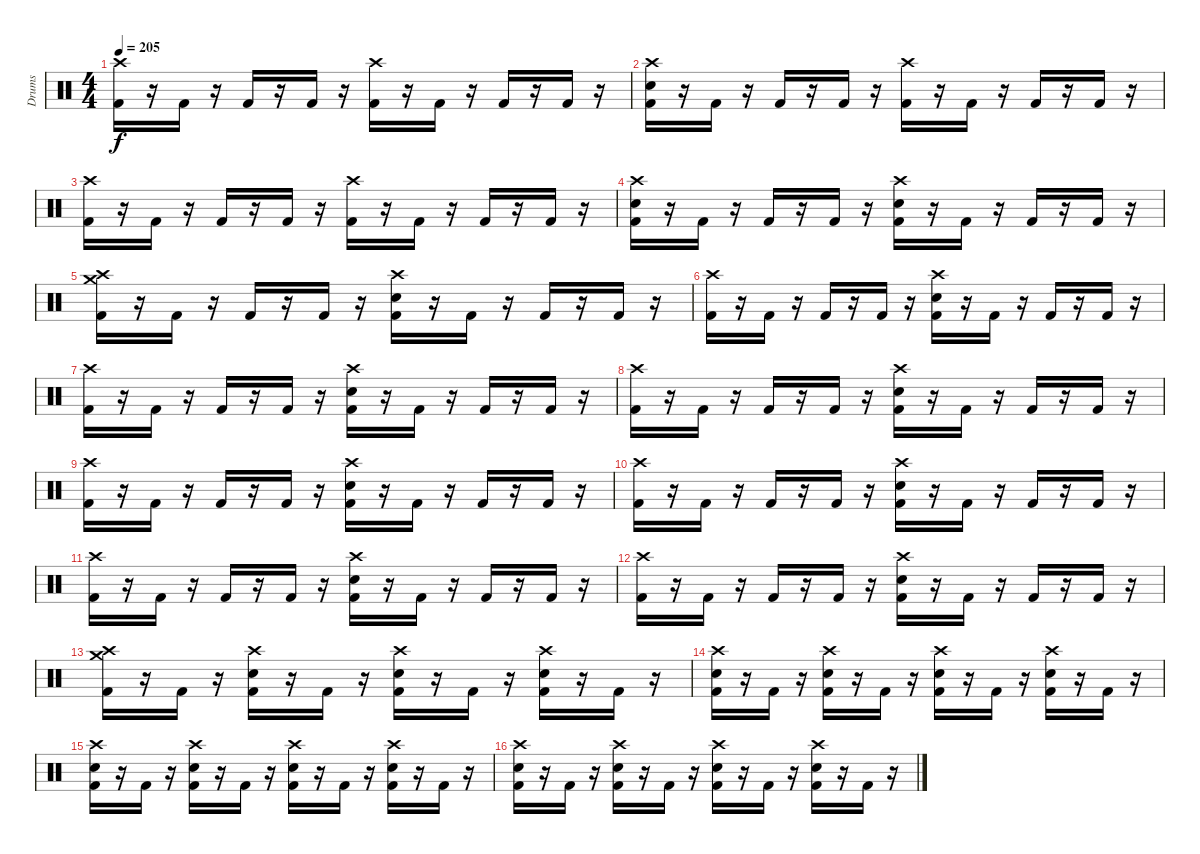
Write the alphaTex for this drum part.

\track ("Drums" "Drums") {instrument percussion}
\staff {score}
\articulation defaults
\ts (4 4)
\tempo 205
\clef neutral
\ks c
("Crash high (hit)" "Kick (hit) 2").16{dy f} r.16 "Kick (hit) 2".16 r.16 "Kick (hit) 2".16 r.16 "Kick (hit) 2".16 r.16 ("Crash high (hit)" "Kick (hit) 2").16 r.16 "Kick (hit) 2".16 r.16 "Kick (hit) 2".16 r.16 "Kick (hit) 2".16 r.16 |
("Crash high (hit)" "Electric Snare (hit)" "Kick (hit) 2").16 r.16 "Kick (hit) 2".16 r.16 "Kick (hit) 2".16 r.16 "Kick (hit) 2".16 r.16 ("Crash high (hit)" "Kick (hit) 2").16 r.16 "Kick (hit) 2".16 r.16 "Kick (hit) 2".16 r.16 "Kick (hit) 2".16 r.16 |
("Crash high (hit)" "Kick (hit) 2").16 r.16 "Kick (hit) 2".16 r.16 "Kick (hit) 2".16 r.16 "Kick (hit) 2".16 r.16 ("Crash high (hit)" "Kick (hit) 2").16 r.16 "Kick (hit) 2".16 r.16 "Kick (hit) 2".16 r.16 "Kick (hit) 2".16 r.16 |
("Crash high (hit)" "Electric Snare (hit)" "Kick (hit) 2").16 r.16 "Kick (hit) 2".16 r.16 "Kick (hit) 2".16 r.16 "Kick (hit) 2".16 r.16 ("Crash high (hit)" "Electric Snare (hit)" "Kick (hit) 2").16 r.16 "Kick (hit) 2".16 r.16 "Kick (hit) 2".16 r.16 "Kick (hit) 2".16 r.16 |
("Crash high (hit)" "Crash medium (hit)" "Kick (hit) 2").16 r.16 "Kick (hit) 2".16 r.16 "Kick (hit) 2".16 r.16 "Kick (hit) 2".16 r.16 ("Crash high (hit)" "Electric Snare (hit)" "Kick (hit) 2").16 r.16 "Kick (hit) 2".16 r.16 "Kick (hit) 2".16 r.16 "Kick (hit) 2".16 r.16 |
("Crash high (hit)" "Kick (hit) 2").16 r.16 "Kick (hit) 2".16 r.16 "Kick (hit) 2".16 r.16 "Kick (hit) 2".16 r.16 ("Crash high (hit)" "Electric Snare (hit)" "Kick (hit) 2").16 r.16 "Kick (hit) 2".16 r.16 "Kick (hit) 2".16 r.16 "Kick (hit) 2".16 r.16 |
("Crash high (hit)" "Kick (hit) 2").16 r.16 "Kick (hit) 2".16 r.16 "Kick (hit) 2".16 r.16 "Kick (hit) 2".16 r.16 ("Crash high (hit)" "Electric Snare (hit)" "Kick (hit) 2").16 r.16 "Kick (hit) 2".16 r.16 "Kick (hit) 2".16 r.16 "Kick (hit) 2".16 r.16 |
("Crash high (hit)" "Kick (hit) 2").16 r.16 "Kick (hit) 2".16 r.16 "Kick (hit) 2".16 r.16 "Kick (hit) 2".16 r.16 ("Crash high (hit)" "Electric Snare (hit)" "Kick (hit) 2").16 r.16 "Kick (hit) 2".16 r.16 "Kick (hit) 2".16 r.16 "Kick (hit) 2".16 r.16 |
("Crash high (hit)" "Kick (hit) 2").16 r.16 "Kick (hit) 2".16 r.16 "Kick (hit) 2".16 r.16 "Kick (hit) 2".16 r.16 ("Crash high (hit)" "Electric Snare (hit)" "Kick (hit) 2").16 r.16 "Kick (hit) 2".16 r.16 "Kick (hit) 2".16 r.16 "Kick (hit) 2".16 r.16 |
("Crash high (hit)" "Kick (hit) 2").16 r.16 "Kick (hit) 2".16 r.16 "Kick (hit) 2".16 r.16 "Kick (hit) 2".16 r.16 ("Crash high (hit)" "Electric Snare (hit)" "Kick (hit) 2").16 r.16 "Kick (hit) 2".16 r.16 "Kick (hit) 2".16 r.16 "Kick (hit) 2".16 r.16 |
("Crash high (hit)" "Kick (hit) 2").16 r.16 "Kick (hit) 2".16 r.16 "Kick (hit) 2".16 r.16 "Kick (hit) 2".16 r.16 ("Crash high (hit)" "Electric Snare (hit)" "Kick (hit) 2").16 r.16 "Kick (hit) 2".16 r.16 "Kick (hit) 2".16 r.16 "Kick (hit) 2".16 r.16 |
("Crash high (hit)" "Kick (hit) 2").16 r.16 "Kick (hit) 2".16 r.16 "Kick (hit) 2".16 r.16 "Kick (hit) 2".16 r.16 ("Crash high (hit)" "Electric Snare (hit)" "Kick (hit) 2").16 r.16 "Kick (hit) 2".16 r.16 "Kick (hit) 2".16 r.16 "Kick (hit) 2".16 r.16 |
("Crash high (hit)" "Crash medium (hit)" "Kick (hit) 2").16 r.16 "Kick (hit) 2".16 r.16 ("Crash high (hit)" "Electric Snare (hit)" "Kick (hit) 2").16 r.16 "Kick (hit) 2".16 r.16 ("Crash high (hit)" "Electric Snare (hit)" "Kick (hit) 2").16 r.16 "Kick (hit) 2".16 r.16 ("Crash high (hit)" "Electric Snare (hit)" "Kick (hit) 2").16 r.16 "Kick (hit) 2".16 r.16 |
("Crash high (hit)" "Electric Snare (hit)" "Kick (hit) 2").16 r.16 "Kick (hit) 2".16 r.16 ("Crash high (hit)" "Electric Snare (hit)" "Kick (hit) 2").16 r.16 "Kick (hit) 2".16 r.16 ("Crash high (hit)" "Electric Snare (hit)" "Kick (hit) 2").16 r.16 "Kick (hit) 2".16 r.16 ("Crash high (hit)" "Electric Snare (hit)" "Kick (hit) 2").16 r.16 "Kick (hit) 2".16 r.16 |
("Crash high (hit)" "Electric Snare (hit)" "Kick (hit) 2").16 r.16 "Kick (hit) 2".16 r.16 ("Crash high (hit)" "Electric Snare (hit)" "Kick (hit) 2").16 r.16 "Kick (hit) 2".16 r.16 ("Crash high (hit)" "Electric Snare (hit)" "Kick (hit) 2").16 r.16 "Kick (hit) 2".16 r.16 ("Crash high (hit)" "Electric Snare (hit)" "Kick (hit) 2").16 r.16 "Kick (hit) 2".16 r.16 |
("Crash high (hit)" "Electric Snare (hit)" "Kick (hit) 2").16 r.16 "Kick (hit) 2".16 r.16 ("Crash high (hit)" "Electric Snare (hit)" "Kick (hit) 2").16 r.16 "Kick (hit) 2".16 r.16 ("Crash high (hit)" "Electric Snare (hit)" "Kick (hit) 2").16 r.16 "Kick (hit) 2".16 r.16 ("Crash high (hit)" "Electric Snare (hit)" "Kick (hit) 2").16 r.16 "Kick (hit) 2".16 r.16
